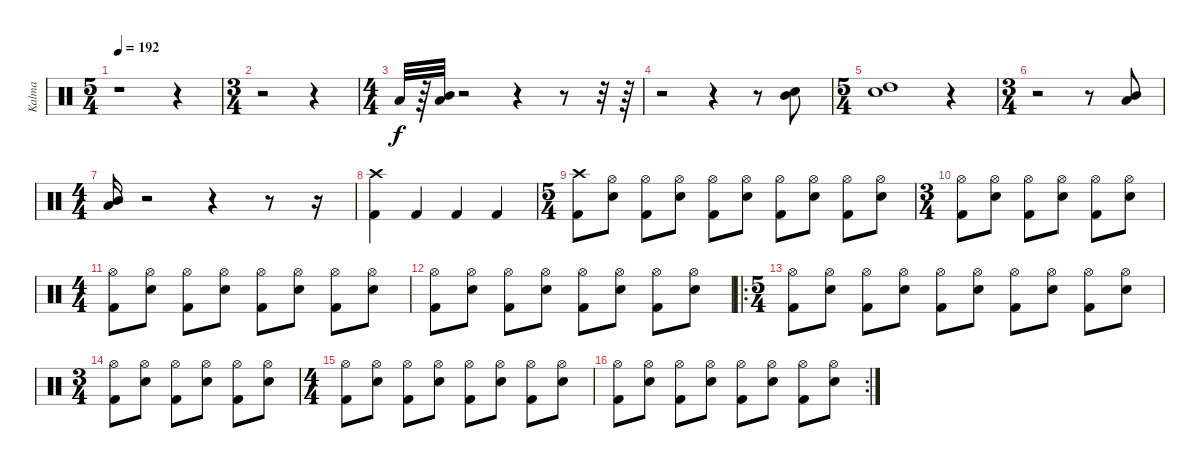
\track ("Kalma" "Kalma") {instrument percussion}
\staff {score}
\articulation defaults
\ts (5 4)
\tempo 192
\clef neutral
\ks c
r.1{dy f} r.4 |
\ts (3 4)
r.2 r.4 |
\ts (4 4)
"Low Floor Tom (hit)".32 r.64 ("Mid Tom (hit)" "Low Tom (hit)").32 r.2 r.4 r.8 r.32 r.64 |
r.2 r.4 r.8 ("Mid Tom (hit)" "Snare (hit) 2").8 |
\ts (5 4)
("High Tom (hit)" "Snare (hit) 2").1 r.4 |
\ts (3 4)
r.2 r.8 ("Low Floor Tom (hit)" "Mid Tom (hit)").8 |
\ts (4 4)
("Low Floor Tom (hit)" "Mid Tom (hit)").16 r.2 r.4 r.8 r.16 |
("Crash high (hit)" "Kick (hit) 2").4 "Kick (hit) 2".4 "Kick (hit) 2".4 "Kick (hit) 2".4 |
\ts (5 4)
("Crash high (hit)" "Kick (hit) 2").8 ("Hi-Hat (open)" "Snare (hit) 2").8 ("Hi-Hat (open)" "Kick (hit) 2").8 ("Hi-Hat (open)" "Snare (hit) 2").8 ("Hi-Hat (open)" "Kick (hit) 2").8 ("Hi-Hat (open)" "Snare (hit) 2").8 ("Hi-Hat (open)" "Kick (hit) 2").8 ("Hi-Hat (open)" "Snare (hit) 2").8 ("Hi-Hat (open)" "Kick (hit) 2").8 ("Hi-Hat (open)" "Snare (hit) 2").8 |
\ts (3 4)
("Hi-Hat (open)" "Kick (hit) 2").8 ("Hi-Hat (open)" "Snare (hit) 2").8 ("Hi-Hat (open)" "Kick (hit) 2").8 ("Hi-Hat (open)" "Snare (hit) 2").8 ("Hi-Hat (open)" "Kick (hit) 2").8 ("Hi-Hat (open)" "Snare (hit) 2").8 |
\ts (4 4)
("Hi-Hat (open)" "Kick (hit) 2").8 ("Hi-Hat (open)" "Snare (hit) 2").8 ("Hi-Hat (open)" "Kick (hit) 2").8 ("Hi-Hat (open)" "Snare (hit) 2").8 ("Hi-Hat (open)" "Kick (hit) 2").8 ("Hi-Hat (open)" "Snare (hit) 2").8 ("Hi-Hat (open)" "Kick (hit) 2").8 ("Hi-Hat (open)" "Snare (hit) 2").8 |
("Hi-Hat (open)" "Kick (hit) 2").8 ("Hi-Hat (open)" "Snare (hit) 2").8 ("Hi-Hat (open)" "Kick (hit) 2").8 ("Hi-Hat (open)" "Snare (hit) 2").8 ("Hi-Hat (open)" "Kick (hit) 2").8 ("Hi-Hat (open)" "Snare (hit) 2").8 ("Hi-Hat (open)" "Kick (hit) 2").8 ("Hi-Hat (open)" "Snare (hit) 2").8 |
\ro
\ts (5 4)
("Hi-Hat (open)" "Kick (hit) 2").8 ("Hi-Hat (open)" "Snare (hit) 2").8 ("Hi-Hat (open)" "Kick (hit) 2").8 ("Hi-Hat (open)" "Snare (hit) 2").8 ("Hi-Hat (open)" "Kick (hit) 2").8 ("Hi-Hat (open)" "Snare (hit) 2").8 ("Hi-Hat (open)" "Kick (hit) 2").8 ("Hi-Hat (open)" "Snare (hit) 2").8 ("Hi-Hat (open)" "Kick (hit) 2").8 ("Hi-Hat (open)" "Snare (hit) 2").8 |
\ts (3 4)
("Hi-Hat (open)" "Kick (hit) 2").8 ("Hi-Hat (open)" "Snare (hit) 2").8 ("Hi-Hat (open)" "Kick (hit) 2").8 ("Hi-Hat (open)" "Snare (hit) 2").8 ("Hi-Hat (open)" "Kick (hit) 2").8 ("Hi-Hat (open)" "Snare (hit) 2").8 |
\ts (4 4)
("Hi-Hat (open)" "Kick (hit) 2").8 ("Hi-Hat (open)" "Snare (hit) 2").8 ("Hi-Hat (open)" "Kick (hit) 2").8 ("Hi-Hat (open)" "Snare (hit) 2").8 ("Hi-Hat (open)" "Kick (hit) 2").8 ("Hi-Hat (open)" "Snare (hit) 2").8 ("Hi-Hat (open)" "Kick (hit) 2").8 ("Hi-Hat (open)" "Snare (hit) 2").8 |
\rc 2
("Hi-Hat (open)" "Kick (hit) 2").8 ("Hi-Hat (open)" "Snare (hit) 2").8 ("Hi-Hat (open)" "Kick (hit) 2").8 ("Hi-Hat (open)" "Snare (hit) 2").8 ("Hi-Hat (open)" "Kick (hit) 2").8 ("Hi-Hat (open)" "Snare (hit) 2").8 ("Hi-Hat (open)" "Kick (hit) 2").8 ("Hi-Hat (open)" "Snare (hit) 2").8
